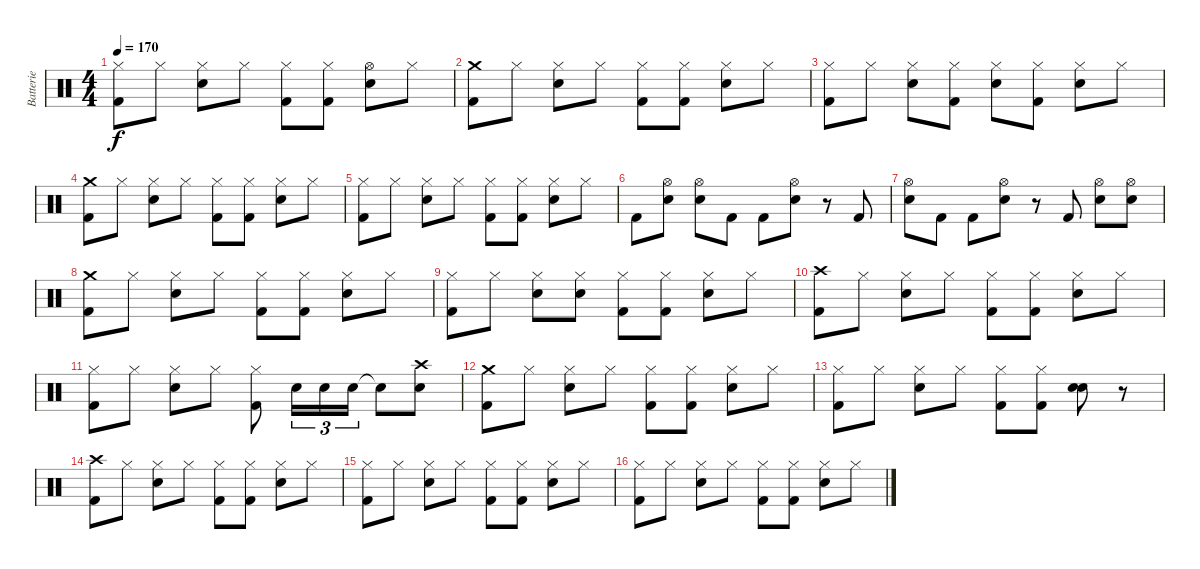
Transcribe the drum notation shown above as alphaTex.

\track ("Batterie" "Batterie") {instrument percussion}
\staff {score}
\articulation defaults
\ts (4 4)
\tempo 170
\clef neutral
\ks c
("Kick (hit) 2" "Hi-Hat (closed)").8{dy f} "Hi-Hat (closed)".8 ("Snare (hit) 2" "Hi-Hat (closed)").8 "Hi-Hat (closed)".8 ("Kick (hit) 2" "Hi-Hat (closed)").8 ("Kick (hit) 2" "Hi-Hat (closed)").8 ("Snare (hit) 2" "Hi-Hat (open)").8 "Hi-Hat (closed)".8 |
("Kick (hit) 2" "Crash medium (hit)").8 "Hi-Hat (closed)".8 ("Snare (hit) 2" "Hi-Hat (closed)").8 "Hi-Hat (closed)".8 ("Kick (hit) 2" "Hi-Hat (closed)").8 ("Kick (hit) 2" "Hi-Hat (closed)").8 ("Snare (hit) 2" "Hi-Hat (closed)").8 "Hi-Hat (closed)".8 |
("Kick (hit) 2" "Hi-Hat (closed)").8 "Hi-Hat (closed)".8 ("Snare (hit) 2" "Hi-Hat (closed)").8 ("Kick (hit) 2" "Hi-Hat (closed)").8 ("Snare (hit) 2" "Hi-Hat (closed)").8 ("Kick (hit) 2" "Hi-Hat (closed)").8 ("Snare (hit) 2" "Hi-Hat (closed)").8 "Hi-Hat (closed)".8 |
("Kick (hit) 2" "Crash medium (hit)").8 "Hi-Hat (closed)".8 ("Snare (hit) 2" "Hi-Hat (closed)").8 "Hi-Hat (closed)".8 ("Kick (hit) 2" "Hi-Hat (closed)").8 ("Kick (hit) 2" "Hi-Hat (closed)").8 ("Snare (hit) 2" "Hi-Hat (closed)").8 "Hi-Hat (closed)".8 |
("Kick (hit) 2" "Hi-Hat (closed)").8 "Hi-Hat (closed)".8 ("Snare (hit) 2" "Hi-Hat (closed)").8 "Hi-Hat (closed)".8 ("Kick (hit) 2" "Hi-Hat (closed)").8 ("Kick (hit) 2" "Hi-Hat (closed)").8 ("Snare (hit) 2" "Hi-Hat (closed)").8 "Hi-Hat (closed)".8 |
"Kick (hit) 2".8 ("Snare (hit) 2" "Hi-Hat (open)").8 ("Snare (hit) 2" "Hi-Hat (open)").8 "Kick (hit) 2".8 "Kick (hit) 2".8 ("Snare (hit) 2" "Hi-Hat (open)").8 r.8 "Kick (hit) 2".8 |
("Snare (hit) 2" "Hi-Hat (open)").8 "Kick (hit) 2".8 "Kick (hit) 2".8 ("Snare (hit) 2" "Hi-Hat (open)").8 r.8 "Kick (hit) 2".8 ("Snare (hit) 2" "Hi-Hat (open)").8 ("Snare (hit) 2" "Hi-Hat (open)").8 |
("Kick (hit) 2" "Crash medium (hit)").8 "Hi-Hat (closed)".8 ("Snare (hit) 2" "Hi-Hat (closed)").8 "Hi-Hat (closed)".8 ("Kick (hit) 2" "Hi-Hat (closed)").8 ("Kick (hit) 2" "Hi-Hat (closed)").8 ("Snare (hit) 2" "Hi-Hat (closed)").8 "Hi-Hat (closed)".8 |
("Kick (hit) 2" "Hi-Hat (closed)").8 "Hi-Hat (closed)".8 ("Snare (hit) 2" "Hi-Hat (closed)").8 ("Snare (hit) 2" "Hi-Hat (closed)").8 ("Kick (hit) 2" "Hi-Hat (closed)").8 ("Kick (hit) 2" "Hi-Hat (closed)").8 ("Snare (hit) 2" "Hi-Hat (closed)").8 "Hi-Hat (closed)".8 |
("Kick (hit) 2" "Crash high (hit)").8 "Hi-Hat (closed)".8 ("Snare (hit) 2" "Hi-Hat (closed)").8 "Hi-Hat (closed)".8 ("Kick (hit) 2" "Hi-Hat (closed)").8 ("Kick (hit) 2" "Hi-Hat (closed)").8 ("Snare (hit) 2" "Hi-Hat (closed)").8 "Hi-Hat (closed)".8 |
("Kick (hit) 2" "Hi-Hat (closed)").8 "Hi-Hat (closed)".8 ("Snare (hit) 2" "Hi-Hat (closed)").8 "Hi-Hat (closed)".8 ("Kick (hit) 2" "Hi-Hat (closed)").8 "Snare (hit) 2".16{tu (3 2)} "Snare (hit) 2".16{tu (3 2)} "Snare (hit) 2".16{tu (3 2)} "Snare (hit)"{t}.8 ("Snare (hit) 2" "Crash high (hit)").8 |
("Kick (hit) 2" "Crash medium (hit)").8 "Hi-Hat (closed)".8 ("Snare (hit) 2" "Hi-Hat (closed)").8 "Hi-Hat (closed)".8 ("Kick (hit) 2" "Hi-Hat (closed)").8 ("Kick (hit) 2" "Hi-Hat (closed)").8 ("Snare (hit) 2" "Hi-Hat (closed)").8 "Hi-Hat (closed)".8 |
("Kick (hit) 2" "Hi-Hat (closed)").8 "Hi-Hat (closed)".8 ("Snare (hit) 2" "Hi-Hat (closed)").8 "Hi-Hat (closed)".8 ("Kick (hit) 2" "Hi-Hat (closed)").8 ("Kick (hit) 2" "Hi-Hat (closed)").8 ("Snare (hit) 2" "Snare (hit) 2").8 r.8 |
("Kick (hit) 2" "Crash high (hit)").8 "Hi-Hat (closed)".8 ("Snare (hit) 2" "Hi-Hat (closed)").8 "Hi-Hat (closed)".8 ("Kick (hit) 2" "Hi-Hat (closed)").8 ("Kick (hit) 2" "Hi-Hat (closed)").8 ("Snare (hit) 2" "Hi-Hat (closed)").8 "Hi-Hat (closed)".8 |
("Kick (hit) 2" "Hi-Hat (closed)").8 "Hi-Hat (closed)".8 ("Snare (hit) 2" "Hi-Hat (closed)").8 "Hi-Hat (closed)".8 ("Kick (hit) 2" "Hi-Hat (closed)").8 ("Kick (hit) 2" "Hi-Hat (closed)").8 ("Snare (hit) 2" "Hi-Hat (closed)").8 "Hi-Hat (closed)".8 |
("Kick (hit) 2" "Hi-Hat (closed)").8 "Hi-Hat (closed)".8 ("Snare (hit) 2" "Hi-Hat (closed)").8 "Hi-Hat (closed)".8 ("Kick (hit) 2" "Hi-Hat (closed)").8 ("Kick (hit) 2" "Hi-Hat (closed)").8 ("Snare (hit) 2" "Hi-Hat (closed)").8 "Hi-Hat (closed)".8
